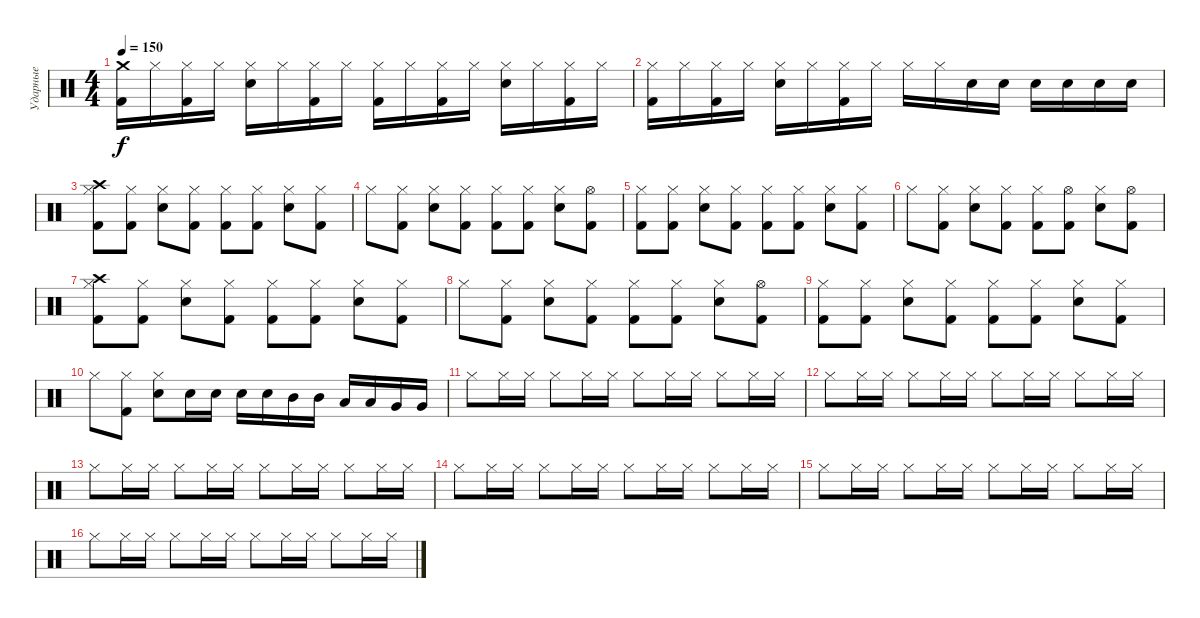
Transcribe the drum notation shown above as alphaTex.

\track ("Ударные" "Ударные") {instrument percussion}
\staff {score}
\articulation defaults
\ts (4 4)
\tempo 150
\clef neutral
\ks c
("Crash medium (hit)" "Kick (hit) 2").16{dy f} "Hi-Hat (closed)".16 ("Hi-Hat (closed)" "Kick (hit) 2").16 "Hi-Hat (closed)".16 ("Hi-Hat (closed)" "Electric Snare (hit)").16 "Hi-Hat (closed)".16 ("Hi-Hat (closed)" "Kick (hit) 2").16 "Hi-Hat (closed)".16 ("Hi-Hat (closed)" "Kick (hit) 2").16 "Hi-Hat (closed)".16 ("Hi-Hat (closed)" "Kick (hit) 2").16 "Hi-Hat (closed)".16 ("Hi-Hat (closed)" "Electric Snare (hit)").16 "Hi-Hat (closed)".16 ("Hi-Hat (closed)" "Kick (hit) 2").16 "Hi-Hat (closed)".16 |
("Hi-Hat (closed)" "Kick (hit) 2").16 "Hi-Hat (closed)".16 ("Hi-Hat (closed)" "Kick (hit) 2").16 "Hi-Hat (closed)".16 ("Hi-Hat (closed)" "Electric Snare (hit)").16 "Hi-Hat (closed)".16 ("Hi-Hat (closed)" "Kick (hit) 2").16 "Hi-Hat (closed)".16 "Hi-Hat (closed)".16 "Hi-Hat (closed)".16 "Electric Snare (hit)".16 "Electric Snare (hit)".16 "Electric Snare (hit)".16 "Electric Snare (hit)".16 "Electric Snare (hit)".16 "Electric Snare (hit)".16 |
("Crash high (hit)" "Hi-Hat (closed)" "Kick (hit) 2").8 ("Hi-Hat (closed)" "Kick (hit) 2").8 ("Hi-Hat (closed)" "Electric Snare (hit)").8 ("Hi-Hat (closed)" "Kick (hit) 2").8 ("Hi-Hat (closed)" "Kick (hit) 2").8 ("Hi-Hat (closed)" "Kick (hit) 2").8 ("Hi-Hat (closed)" "Electric Snare (hit)").8 ("Hi-Hat (closed)" "Kick (hit) 2").8 |
"Hi-Hat (closed)".8 ("Hi-Hat (closed)" "Kick (hit) 2").8 ("Hi-Hat (closed)" "Electric Snare (hit)").8 ("Hi-Hat (closed)" "Kick (hit) 2").8 ("Hi-Hat (closed)" "Kick (hit) 2").8 ("Hi-Hat (closed)" "Kick (hit) 2").8 ("Hi-Hat (closed)" "Electric Snare (hit)").8 ("Hi-Hat (open)" "Kick (hit) 2").8 |
("Hi-Hat (closed)" "Kick (hit) 2").8 ("Hi-Hat (closed)" "Kick (hit) 2").8 ("Hi-Hat (closed)" "Electric Snare (hit)").8 ("Hi-Hat (closed)" "Kick (hit) 2").8 ("Hi-Hat (closed)" "Kick (hit) 2").8 ("Hi-Hat (closed)" "Kick (hit) 2").8 ("Hi-Hat (closed)" "Electric Snare (hit)").8 ("Hi-Hat (closed)" "Kick (hit) 2").8 |
"Hi-Hat (closed)".8 ("Hi-Hat (closed)" "Kick (hit) 2").8 ("Hi-Hat (closed)" "Electric Snare (hit)").8 ("Hi-Hat (closed)" "Kick (hit) 2").8 ("Hi-Hat (closed)" "Kick (hit) 2").8 ("Hi-Hat (open)" "Kick (hit) 2").8 ("Hi-Hat (closed)" "Electric Snare (hit)").8 ("Hi-Hat (open)" "Kick (hit) 2").8 |
("Crash high (hit)" "Hi-Hat (closed)" "Kick (hit) 2").8 ("Hi-Hat (closed)" "Kick (hit) 2").8 ("Hi-Hat (closed)" "Electric Snare (hit)").8 ("Hi-Hat (closed)" "Kick (hit) 2").8 ("Hi-Hat (closed)" "Kick (hit) 2").8 ("Hi-Hat (closed)" "Kick (hit) 2").8 ("Hi-Hat (closed)" "Electric Snare (hit)").8 ("Hi-Hat (closed)" "Kick (hit) 2").8 |
"Hi-Hat (closed)".8 ("Hi-Hat (closed)" "Kick (hit) 2").8 ("Hi-Hat (closed)" "Electric Snare (hit)").8 ("Hi-Hat (closed)" "Kick (hit) 2").8 ("Hi-Hat (closed)" "Kick (hit) 2").8 ("Hi-Hat (closed)" "Kick (hit) 2").8 ("Hi-Hat (closed)" "Electric Snare (hit)").8 ("Hi-Hat (open)" "Kick (hit) 2").8 |
("Hi-Hat (closed)" "Kick (hit) 2").8 ("Hi-Hat (closed)" "Kick (hit) 2").8 ("Hi-Hat (closed)" "Electric Snare (hit)").8 ("Hi-Hat (closed)" "Kick (hit) 2").8 ("Hi-Hat (closed)" "Kick (hit) 2").8 ("Hi-Hat (closed)" "Kick (hit) 2").8 ("Hi-Hat (closed)" "Electric Snare (hit)").8 ("Hi-Hat (closed)" "Kick (hit) 2").8 |
"Hi-Hat (closed)".8 ("Hi-Hat (closed)" "Kick (hit) 2").8 ("Hi-Hat (closed)" "Electric Snare (hit)").8 "Electric Snare (hit)".16 "Electric Snare (hit)".16 "Electric Snare (hit)".16 "Electric Snare (hit)".16 "Mid Tom (hit)".16 "Mid Tom (hit)".16 "Low Tom (hit)".16 "Low Tom (hit)".16 "Very Low Tom (hit)".16 "Very Low Tom (hit)".16 |
"Hi-Hat (closed)".8 "Hi-Hat (closed)".16 "Hi-Hat (closed)".16 "Hi-Hat (closed)".8 "Hi-Hat (closed)".16 "Hi-Hat (closed)".16 "Hi-Hat (closed)".8 "Hi-Hat (closed)".16 "Hi-Hat (closed)".16 "Hi-Hat (closed)".8 "Hi-Hat (closed)".16 "Hi-Hat (closed)".16 |
"Hi-Hat (closed)".8 "Hi-Hat (closed)".16 "Hi-Hat (closed)".16 "Hi-Hat (closed)".8 "Hi-Hat (closed)".16 "Hi-Hat (closed)".16 "Hi-Hat (closed)".8 "Hi-Hat (closed)".16 "Hi-Hat (closed)".16 "Hi-Hat (closed)".8 "Hi-Hat (closed)".16 "Hi-Hat (closed)".16 |
"Hi-Hat (closed)".8 "Hi-Hat (closed)".16 "Hi-Hat (closed)".16 "Hi-Hat (closed)".8 "Hi-Hat (closed)".16 "Hi-Hat (closed)".16 "Hi-Hat (closed)".8 "Hi-Hat (closed)".16 "Hi-Hat (closed)".16 "Hi-Hat (closed)".8 "Hi-Hat (closed)".16 "Hi-Hat (closed)".16 |
"Hi-Hat (closed)".8 "Hi-Hat (closed)".16 "Hi-Hat (closed)".16 "Hi-Hat (closed)".8 "Hi-Hat (closed)".16 "Hi-Hat (closed)".16 "Hi-Hat (closed)".8 "Hi-Hat (closed)".16 "Hi-Hat (closed)".16 "Hi-Hat (closed)".8 "Hi-Hat (closed)".16 "Hi-Hat (closed)".16 |
"Hi-Hat (closed)".8 "Hi-Hat (closed)".16 "Hi-Hat (closed)".16 "Hi-Hat (closed)".8 "Hi-Hat (closed)".16 "Hi-Hat (closed)".16 "Hi-Hat (closed)".8 "Hi-Hat (closed)".16 "Hi-Hat (closed)".16 "Hi-Hat (closed)".8 "Hi-Hat (closed)".16 "Hi-Hat (closed)".16 |
"Hi-Hat (closed)".8 "Hi-Hat (closed)".16 "Hi-Hat (closed)".16 "Hi-Hat (closed)".8 "Hi-Hat (closed)".16 "Hi-Hat (closed)".16 "Hi-Hat (closed)".8 "Hi-Hat (closed)".16 "Hi-Hat (closed)".16 "Hi-Hat (closed)".8 "Hi-Hat (closed)".16 "Hi-Hat (closed)".16
